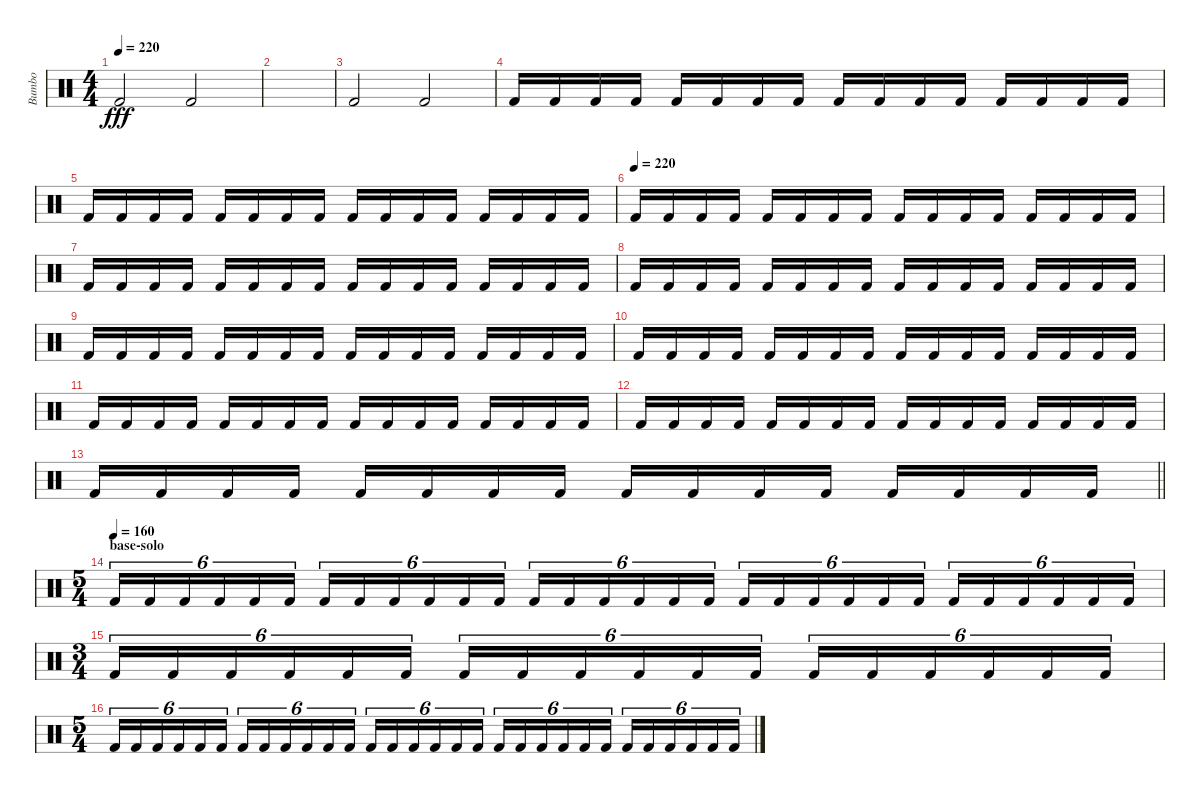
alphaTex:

\track ("Bumbo" "Bumbo") {instrument percussion}
\staff {score}
\articulation defaults
\ts (4 4)
\tempo 220
\clef neutral
\ks c "Kick (hit) 2".2{dy fff} "Kick (hit) 2".2
|
|
"Kick (hit) 2".2 "Kick (hit) 2".2 |
"Kick (hit) 2".16 "Kick (hit) 2".16 "Kick (hit) 2".16 "Kick (hit) 2".16 "Kick (hit) 2".16 "Kick (hit) 2".16 "Kick (hit) 2".16 "Kick (hit) 2".16 "Kick (hit) 2".16 "Kick (hit) 2".16 "Kick (hit) 2".16 "Kick (hit) 2".16 "Kick (hit) 2".16 "Kick (hit) 2".16 "Kick (hit) 2".16 "Kick (hit) 2".16 |
"Kick (hit) 2".16 "Kick (hit) 2".16 "Kick (hit) 2".16 "Kick (hit) 2".16 "Kick (hit) 2".16 "Kick (hit) 2".16 "Kick (hit) 2".16 "Kick (hit) 2".16 "Kick (hit) 2".16 "Kick (hit) 2".16 "Kick (hit) 2".16 "Kick (hit) 2".16 "Kick (hit) 2".16 "Kick (hit) 2".16 "Kick (hit) 2".16 "Kick (hit) 2".16 |
\tempo (220)
"Kick (hit) 2".16 "Kick (hit) 2".16 "Kick (hit) 2".16 "Kick (hit) 2".16 "Kick (hit) 2".16 "Kick (hit) 2".16 "Kick (hit) 2".16 "Kick (hit) 2".16 "Kick (hit) 2".16 "Kick (hit) 2".16 "Kick (hit) 2".16 "Kick (hit) 2".16 "Kick (hit) 2".16 "Kick (hit) 2".16 "Kick (hit) 2".16 "Kick (hit) 2".16 |
"Kick (hit) 2".16 "Kick (hit) 2".16 "Kick (hit) 2".16 "Kick (hit) 2".16 "Kick (hit) 2".16 "Kick (hit) 2".16 "Kick (hit) 2".16 "Kick (hit) 2".16 "Kick (hit) 2".16 "Kick (hit) 2".16 "Kick (hit) 2".16 "Kick (hit) 2".16 "Kick (hit) 2".16 "Kick (hit) 2".16 "Kick (hit) 2".16 "Kick (hit) 2".16 |
"Kick (hit) 2".16 "Kick (hit) 2".16 "Kick (hit) 2".16 "Kick (hit) 2".16 "Kick (hit) 2".16 "Kick (hit) 2".16 "Kick (hit) 2".16 "Kick (hit) 2".16 "Kick (hit) 2".16 "Kick (hit) 2".16 "Kick (hit) 2".16 "Kick (hit) 2".16 "Kick (hit) 2".16 "Kick (hit) 2".16 "Kick (hit) 2".16 "Kick (hit) 2".16 |
"Kick (hit) 2".16 "Kick (hit) 2".16 "Kick (hit) 2".16 "Kick (hit) 2".16 "Kick (hit) 2".16 "Kick (hit) 2".16 "Kick (hit) 2".16 "Kick (hit) 2".16 "Kick (hit) 2".16 "Kick (hit) 2".16 "Kick (hit) 2".16 "Kick (hit) 2".16 "Kick (hit) 2".16 "Kick (hit) 2".16 "Kick (hit) 2".16 "Kick (hit) 2".16 |
"Kick (hit) 2".16 "Kick (hit) 2".16 "Kick (hit) 2".16 "Kick (hit) 2".16 "Kick (hit) 2".16 "Kick (hit) 2".16 "Kick (hit) 2".16 "Kick (hit) 2".16 "Kick (hit) 2".16 "Kick (hit) 2".16 "Kick (hit) 2".16 "Kick (hit) 2".16 "Kick (hit) 2".16 "Kick (hit) 2".16 "Kick (hit) 2".16 "Kick (hit) 2".16 |
"Kick (hit) 2".16 "Kick (hit) 2".16 "Kick (hit) 2".16 "Kick (hit) 2".16 "Kick (hit) 2".16 "Kick (hit) 2".16 "Kick (hit) 2".16 "Kick (hit) 2".16 "Kick (hit) 2".16 "Kick (hit) 2".16 "Kick (hit) 2".16 "Kick (hit) 2".16 "Kick (hit) 2".16 "Kick (hit) 2".16 "Kick (hit) 2".16 "Kick (hit) 2".16 |
"Kick (hit) 2".16 "Kick (hit) 2".16 "Kick (hit) 2".16 "Kick (hit) 2".16 "Kick (hit) 2".16 "Kick (hit) 2".16 "Kick (hit) 2".16 "Kick (hit) 2".16 "Kick (hit) 2".16 "Kick (hit) 2".16 "Kick (hit) 2".16 "Kick (hit) 2".16 "Kick (hit) 2".16 "Kick (hit) 2".16 "Kick (hit) 2".16 "Kick (hit) 2".16 |
\barLineRight lightlight "Kick (hit) 2".16 "Kick (hit) 2".16 "Kick (hit) 2".16 "Kick (hit) 2".16 "Kick (hit) 2".16 "Kick (hit) 2".16 "Kick (hit) 2".16 "Kick (hit) 2".16 "Kick (hit) 2".16 "Kick (hit) 2".16 "Kick (hit) 2".16 "Kick (hit) 2".16 "Kick (hit) 2".16 "Kick (hit) 2".16 "Kick (hit) 2".16 "Kick (hit) 2".16
|
\ts (5 4)
\section ("" "base-solo")
\tempo (160)
"Kick (hit) 2".16{tu (6 4)} "Kick (hit) 2".16{tu (6 4)} "Kick (hit) 2".16{tu (6 4)} "Kick (hit) 2".16{tu (6 4)} "Kick (hit) 2".16{tu (6 4)} "Kick (hit) 2".16{tu (6 4)} "Kick (hit) 2".16{tu (6 4)} "Kick (hit) 2".16{tu (6 4)} "Kick (hit) 2".16{tu (6 4)} "Kick (hit) 2".16{tu (6 4)} "Kick (hit) 2".16{tu (6 4)} "Kick (hit) 2".16{tu (6 4)} "Kick (hit) 2".16{tu (6 4)} "Kick (hit) 2".16{tu (6 4)} "Kick (hit) 2".16{tu (6 4)} "Kick (hit) 2".16{tu (6 4)} "Kick (hit) 2".16{tu (6 4)} "Kick (hit) 2".16{tu (6 4)} "Kick (hit) 2".16{tu (6 4)} "Kick (hit) 2".16{tu (6 4)} "Kick (hit) 2".16{tu (6 4)} "Kick (hit) 2".16{tu (6 4)} "Kick (hit) 2".16{tu (6 4)} "Kick (hit) 2".16{tu (6 4)} "Kick (hit) 2".16{tu (6 4)} "Kick (hit) 2".16{tu (6 4)} "Kick (hit) 2".16{tu (6 4)} "Kick (hit) 2".16{tu (6 4)} "Kick (hit) 2".16{tu (6 4)} "Kick (hit) 2".16{tu (6 4)} |
\ts (3 4)
"Kick (hit) 2".16{tu (6 4)} "Kick (hit) 2".16{tu (6 4)} "Kick (hit) 2".16{tu (6 4)} "Kick (hit) 2".16{tu (6 4)} "Kick (hit) 2".16{tu (6 4)} "Kick (hit) 2".16{tu (6 4)} "Kick (hit) 2".16{tu (6 4)} "Kick (hit) 2".16{tu (6 4)} "Kick (hit) 2".16{tu (6 4)} "Kick (hit) 2".16{tu (6 4)} "Kick (hit) 2".16{tu (6 4)} "Kick (hit) 2".16{tu (6 4)} "Kick (hit) 2".16{tu (6 4)} "Kick (hit) 2".16{tu (6 4)} "Kick (hit) 2".16{tu (6 4)} "Kick (hit) 2".16{tu (6 4)} "Kick (hit) 2".16{tu (6 4)} "Kick (hit) 2".16{tu (6 4)} |
\ts (5 4)
"Kick (hit) 2".16{tu (6 4)} "Kick (hit) 2".16{tu (6 4)} "Kick (hit) 2".16{tu (6 4)} "Kick (hit) 2".16{tu (6 4)} "Kick (hit) 2".16{tu (6 4)} "Kick (hit) 2".16{tu (6 4)} "Kick (hit) 2".16{tu (6 4)} "Kick (hit) 2".16{tu (6 4)} "Kick (hit) 2".16{tu (6 4)} "Kick (hit) 2".16{tu (6 4)} "Kick (hit) 2".16{tu (6 4)} "Kick (hit) 2".16{tu (6 4)} "Kick (hit) 2".16{tu (6 4)} "Kick (hit) 2".16{tu (6 4)} "Kick (hit) 2".16{tu (6 4)} "Kick (hit) 2".16{tu (6 4)} "Kick (hit) 2".16{tu (6 4)} "Kick (hit) 2".16{tu (6 4)} "Kick (hit) 2".16{tu (6 4)} "Kick (hit) 2".16{tu (6 4)} "Kick (hit) 2".16{tu (6 4)} "Kick (hit) 2".16{tu (6 4)} "Kick (hit) 2".16{tu (6 4)} "Kick (hit) 2".16{tu (6 4)} "Kick (hit) 2".16{tu (6 4)} "Kick (hit) 2".16{tu (6 4)} "Kick (hit) 2".16{tu (6 4)} "Kick (hit) 2".16{tu (6 4)} "Kick (hit) 2".16{tu (6 4)} "Kick (hit) 2".16{tu (6 4)}
